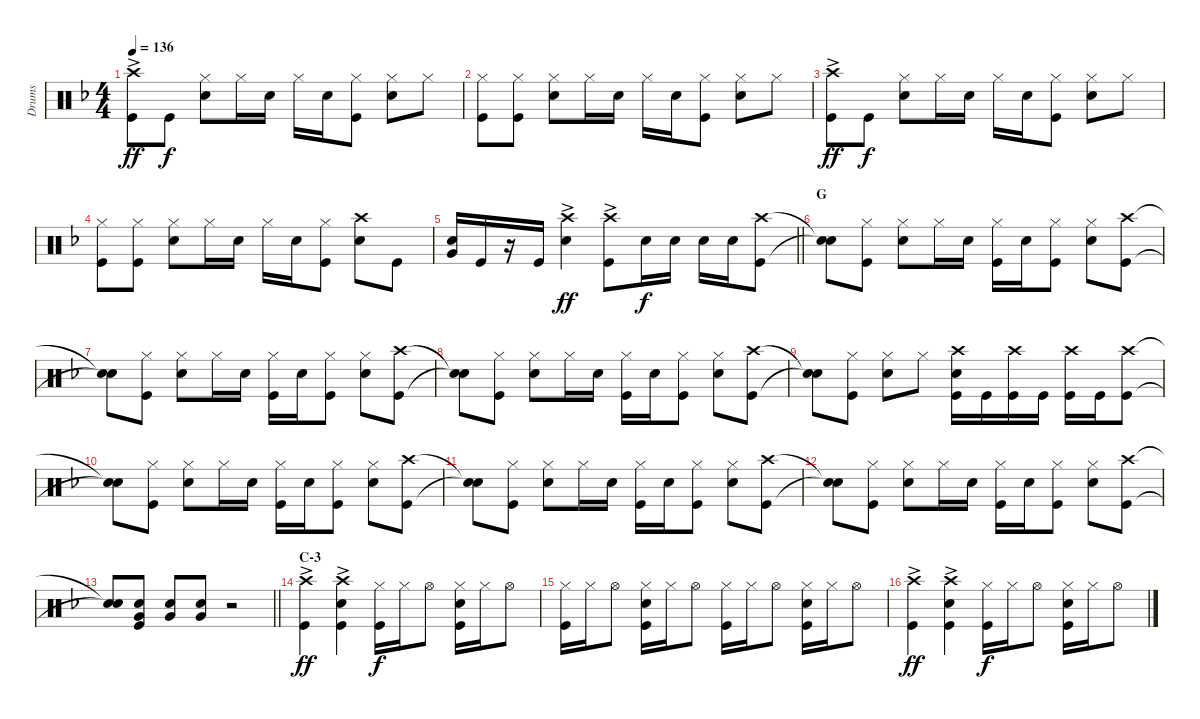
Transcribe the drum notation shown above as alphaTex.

\track ("Drums" "Drums") {instrument percussion}
\staff {score}
\articulation defaults
\ts (4 4)
\tempo 136
\clef neutral
\ks dminor
("Crash high (hit)"{ac} "Kick (hit)").8{dy ff} "Kick (hit)".8{dy f} ("Hi-Hat (closed)" "Snare (hit) 2").8 "Hi-Hat (closed)".16 "Snare (hit) 2".16 "Hi-Hat (closed)".16 "Snare (hit) 2".16 ("Hi-Hat (closed)" "Kick (hit)").8 ("Hi-Hat (closed)" "Snare (hit) 2").8 "Hi-Hat (closed)".8 |
("Hi-Hat (closed)" "Kick (hit)").8 ("Hi-Hat (closed)" "Kick (hit)").8 ("Hi-Hat (closed)" "Snare (hit) 2").8 "Hi-Hat (closed)".16 "Snare (hit) 2".16 "Hi-Hat (closed)".16 "Snare (hit) 2".16 ("Hi-Hat (closed)" "Kick (hit)").8 ("Hi-Hat (closed)" "Snare (hit) 2").8 "Hi-Hat (closed)".8 |
("Crash high (hit)"{ac} "Kick (hit)").8{dy ff} "Kick (hit)".8{dy f} ("Hi-Hat (closed)" "Snare (hit) 2").8 "Hi-Hat (closed)".16 "Snare (hit) 2".16 "Hi-Hat (closed)".16 "Snare (hit) 2".16 ("Hi-Hat (closed)" "Kick (hit)").8 ("Hi-Hat (closed)" "Snare (hit) 2").8 "Hi-Hat (closed)".8 |
("Hi-Hat (closed)" "Kick (hit)").8 ("Hi-Hat (closed)" "Kick (hit)").8 ("Hi-Hat (closed)" "Snare (hit) 2").8 "Hi-Hat (closed)".16 "Snare (hit) 2".16 "Hi-Hat (closed)".16 "Snare (hit) 2".16 ("Hi-Hat (closed)" "Kick (hit)").8 ("Crash high (hit)" "Snare (hit) 2").8 "Kick (hit)".8 |
\barLineRight lightlight
("Snare (hit) 2" "Very Low Tom (hit)").16 "Kick (hit)".16 r.16 "Kick (hit)".16 ("Crash high (hit)" "Snare (hit) 2"{ac}).4{dy ff} ("Kick (hit)" "Crash high (hit)"{ac}).8 "Snare (hit) 2".16{dy f} "Snare (hit) 2".16 "Snare (hit) 2".16 "Snare (hit) 2".16 ("Crash high (hit)" "Kick (hit)").8 |
\section ("" "G")
("Snare (hit)"{t} "Snare (hit)"{t}).8 ("Hi-Hat (closed)" "Kick (hit)").8 ("Hi-Hat (closed)" "Snare (hit) 2").8 "Hi-Hat (closed)".16 "Snare (hit) 2".16 ("Hi-Hat (closed)" "Kick (hit)").16 "Snare (hit) 2".16 ("Hi-Hat (closed)" "Kick (hit)").8 ("Hi-Hat (closed)" "Snare (hit) 2").8 ("Kick (hit)" "Crash high (hit)").8 |
("Snare (hit)"{t} "Snare (hit)"{t}).8 ("Hi-Hat (closed)" "Kick (hit)").8 ("Hi-Hat (closed)" "Snare (hit) 2").8 "Hi-Hat (closed)".16 "Snare (hit) 2".16 ("Hi-Hat (closed)" "Kick (hit)").16 "Snare (hit) 2".16 ("Hi-Hat (closed)" "Kick (hit)").8 ("Hi-Hat (closed)" "Snare (hit) 2").8 ("Kick (hit)" "Crash high (hit)").8 |
("Snare (hit)"{t} "Snare (hit)"{t}).8 ("Hi-Hat (closed)" "Kick (hit)").8 ("Hi-Hat (closed)" "Snare (hit) 2").8 "Hi-Hat (closed)".16 "Snare (hit) 2".16 ("Hi-Hat (closed)" "Kick (hit)").16 "Snare (hit) 2".16 ("Hi-Hat (closed)" "Kick (hit)").8 ("Hi-Hat (closed)" "Snare (hit) 2").8 ("Kick (hit)" "Crash high (hit)").8 |
("Snare (hit)"{t} "Snare (hit)"{t}).8 ("Hi-Hat (closed)" "Kick (hit)").8 ("Hi-Hat (closed)" "Snare (hit) 2").8 "Hi-Hat (closed)".8 ("Crash high (hit)" "Snare (hit) 2" "Kick (hit)").16 "Kick (hit)".16 ("Kick (hit)" "Crash high (hit)").16 "Kick (hit)".16 ("Kick (hit)" "Crash high (hit)").16 "Kick (hit)".16 ("Kick (hit)" "Crash high (hit)").8 |
("Snare (hit)"{t} "Snare (hit)"{t}).8 ("Hi-Hat (closed)" "Kick (hit)").8 ("Hi-Hat (closed)" "Snare (hit) 2").8 "Hi-Hat (closed)".16 "Snare (hit) 2".16 ("Hi-Hat (closed)" "Kick (hit)").16 "Snare (hit) 2".16 ("Hi-Hat (closed)" "Kick (hit)").8 ("Hi-Hat (closed)" "Snare (hit) 2").8 ("Kick (hit)" "Crash high (hit)").8 |
("Snare (hit)"{t} "Snare (hit)"{t}).8 ("Hi-Hat (closed)" "Kick (hit)").8 ("Hi-Hat (closed)" "Snare (hit) 2").8 "Hi-Hat (closed)".16 "Snare (hit) 2".16 ("Hi-Hat (closed)" "Kick (hit)").16 "Snare (hit) 2".16 ("Hi-Hat (closed)" "Kick (hit)").8 ("Hi-Hat (closed)" "Snare (hit) 2").8 ("Kick (hit)" "Crash high (hit)").8 |
("Snare (hit)"{t} "Snare (hit)"{t}).8 ("Hi-Hat (closed)" "Kick (hit)").8 ("Hi-Hat (closed)" "Snare (hit) 2").8 "Hi-Hat (closed)".16 "Snare (hit) 2".16 ("Hi-Hat (closed)" "Kick (hit)").16 "Snare (hit) 2".16 ("Hi-Hat (closed)" "Kick (hit)").8 ("Hi-Hat (closed)" "Snare (hit) 2").8 ("Kick (hit)" "Crash high (hit)").8 |
\barLineRight lightlight
("Snare (hit)"{t} "Snare (hit)"{t}).8 ("Snare (hit) 2" "Kick (hit)" "Very Low Tom (hit)").8 ("Very Low Tom (hit)" "Snare (hit) 2").8 ("Snare (hit) 2" "Very Low Tom (hit)").8 r.2 |
\section ("" "C-3")
("Crash high (hit)" "Kick (hit)"{ac}).4{dy ff} ("Crash high (hit)" "Snare (hit) 2" "Kick (hit)"{ac}).4 ("Kick (hit)" "Hi-Hat (closed)").16{dy f} "Hi-Hat (closed)".16 "Hi-Hat (open)".8 ("Kick (hit)" "Hi-Hat (closed)" "Snare (hit) 2").16 "Hi-Hat (closed)".16 "Hi-Hat (open)".8 |
("Kick (hit)" "Hi-Hat (closed)").16 "Hi-Hat (closed)".16 "Hi-Hat (open)".8 ("Kick (hit)" "Hi-Hat (closed)" "Snare (hit) 2").16 "Hi-Hat (closed)".16 "Hi-Hat (open)".8 ("Kick (hit)" "Hi-Hat (closed)").16 "Hi-Hat (closed)".16 "Hi-Hat (open)".8 ("Kick (hit)" "Hi-Hat (closed)" "Snare (hit) 2").16 "Hi-Hat (closed)".16 "Hi-Hat (open)".8 |
("Crash high (hit)" "Kick (hit)"{ac}).4{dy ff} ("Crash high (hit)" "Snare (hit) 2" "Kick (hit)"{ac}).4 ("Kick (hit)" "Hi-Hat (closed)").16{dy f} "Hi-Hat (closed)".16 "Hi-Hat (open)".8 ("Kick (hit)" "Hi-Hat (closed)" "Snare (hit) 2").16 "Hi-Hat (closed)".16 "Hi-Hat (open)".8
